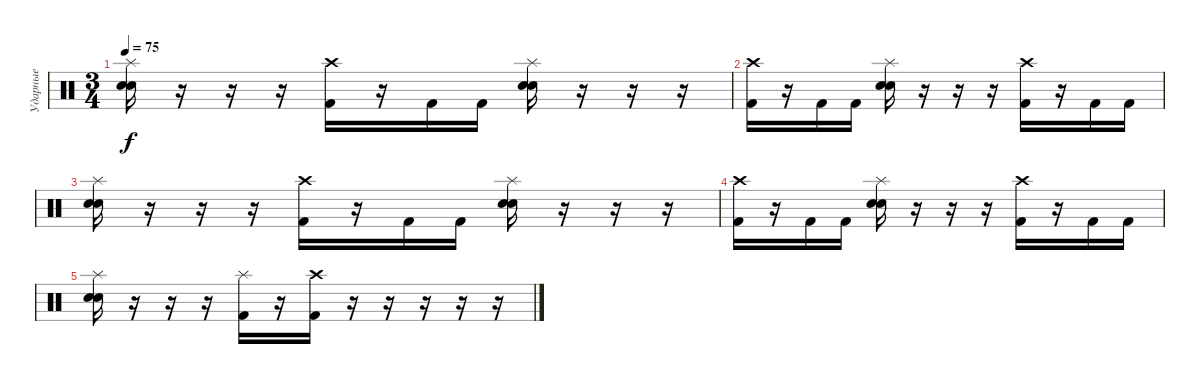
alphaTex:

\track ("Ударные" "Ударные") {instrument percussion}
\staff {score}
\articulation defaults
\ts (3 4)
\tempo 75
\clef neutral
\ks c
("Splash (hit)" "Electric Snare (hit)" "Snare (hit) 2").16{dy f} r.16 r.16 r.16 ("Crash high (hit)" "Kick (hit) 2").16 r.16 "Kick (hit) 2".16 "Kick (hit) 2".16 ("Splash (hit)" "Electric Snare (hit)" "Snare (hit) 2").16 r.16 r.16 r.16 |
("Crash high (hit)" "Kick (hit) 2").16 r.16 "Kick (hit) 2".16 "Kick (hit) 2".16 ("Splash (hit)" "Electric Snare (hit)" "Snare (hit) 2").16 r.16 r.16 r.16 ("Crash high (hit)" "Kick (hit) 2").16 r.16 "Kick (hit) 2".16 "Kick (hit) 2".16 |
("Splash (hit)" "Electric Snare (hit)" "Snare (hit) 2").16 r.16 r.16 r.16 ("Crash high (hit)" "Kick (hit) 2").16 r.16 "Kick (hit) 2".16 "Kick (hit) 2".16 ("Splash (hit)" "Electric Snare (hit)" "Snare (hit) 2").16 r.16 r.16 r.16 |
("Crash high (hit)" "Kick (hit) 2").16 r.16 "Kick (hit) 2".16 "Kick (hit) 2".16 ("Splash (hit)" "Electric Snare (hit)" "Snare (hit) 2").16 r.16 r.16 r.16 ("Crash high (hit)" "Kick (hit) 2").16 r.16 "Kick (hit) 2".16 "Kick (hit) 2".16 |
("Splash (hit)" "Electric Snare (hit)" "Snare (hit) 2").16 r.16 r.16 r.16 ("Splash (hit)" "Kick (hit) 2").16 r.16 ("Crash high (hit)" "Kick (hit) 2").16 r.16 r.16 r.16 r.16 r.16
